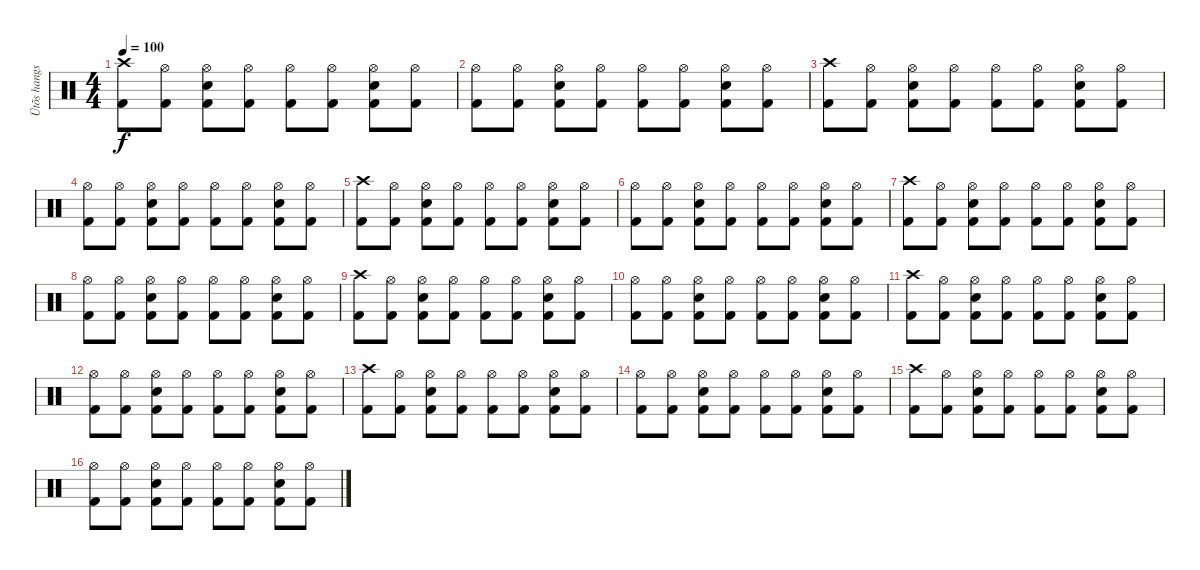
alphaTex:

\track ("Ütõs hangszer" "Ütõs hangs") {instrument percussion}
\staff {score}
\articulation defaults
\ts (4 4)
\tempo 100
\clef neutral
\ks c
("Crash high (hit)" "Kick (hit) 2").8{dy f} ("Hi-Hat (open)" "Kick (hit) 2").8 ("Hi-Hat (open)" "Snare (hit) 2" "Kick (hit) 2").8 ("Hi-Hat (open)" "Kick (hit) 2").8 ("Hi-Hat (open)" "Kick (hit) 2").8 ("Hi-Hat (open)" "Kick (hit) 2").8 ("Hi-Hat (open)" "Snare (hit) 2" "Kick (hit) 2").8 ("Hi-Hat (open)" "Kick (hit) 2").8 |
("Hi-Hat (open)" "Kick (hit) 2").8 ("Hi-Hat (open)" "Kick (hit) 2").8 ("Hi-Hat (open)" "Snare (hit) 2" "Kick (hit) 2").8 ("Hi-Hat (open)" "Kick (hit) 2").8 ("Hi-Hat (open)" "Kick (hit) 2").8 ("Hi-Hat (open)" "Kick (hit) 2").8 ("Hi-Hat (open)" "Snare (hit) 2" "Kick (hit) 2").8 ("Hi-Hat (open)" "Kick (hit) 2").8 |
("Crash high (hit)" "Kick (hit) 2").8 ("Hi-Hat (open)" "Kick (hit) 2").8 ("Hi-Hat (open)" "Snare (hit) 2" "Kick (hit) 2").8 ("Hi-Hat (open)" "Kick (hit) 2").8 ("Hi-Hat (open)" "Kick (hit) 2").8 ("Hi-Hat (open)" "Kick (hit) 2").8 ("Hi-Hat (open)" "Snare (hit) 2" "Kick (hit) 2").8 ("Hi-Hat (open)" "Kick (hit) 2").8 |
("Hi-Hat (open)" "Kick (hit) 2").8 ("Hi-Hat (open)" "Kick (hit) 2").8 ("Hi-Hat (open)" "Snare (hit) 2" "Kick (hit) 2").8 ("Hi-Hat (open)" "Kick (hit) 2").8 ("Hi-Hat (open)" "Kick (hit) 2").8 ("Hi-Hat (open)" "Kick (hit) 2").8 ("Hi-Hat (open)" "Snare (hit) 2" "Kick (hit) 2").8 ("Hi-Hat (open)" "Kick (hit) 2").8 |
("Crash high (hit)" "Kick (hit) 2").8 ("Hi-Hat (open)" "Kick (hit) 2").8 ("Hi-Hat (open)" "Snare (hit) 2" "Kick (hit) 2").8 ("Hi-Hat (open)" "Kick (hit) 2").8 ("Hi-Hat (open)" "Kick (hit) 2").8 ("Hi-Hat (open)" "Kick (hit) 2").8 ("Hi-Hat (open)" "Snare (hit) 2" "Kick (hit) 2").8 ("Hi-Hat (open)" "Kick (hit) 2").8 |
("Hi-Hat (open)" "Kick (hit) 2").8 ("Hi-Hat (open)" "Kick (hit) 2").8 ("Hi-Hat (open)" "Snare (hit) 2" "Kick (hit) 2").8 ("Hi-Hat (open)" "Kick (hit) 2").8 ("Hi-Hat (open)" "Kick (hit) 2").8 ("Hi-Hat (open)" "Kick (hit) 2").8 ("Hi-Hat (open)" "Snare (hit) 2" "Kick (hit) 2").8 ("Hi-Hat (open)" "Kick (hit) 2").8 |
("Crash high (hit)" "Kick (hit) 2").8 ("Hi-Hat (open)" "Kick (hit) 2").8 ("Hi-Hat (open)" "Snare (hit) 2" "Kick (hit) 2").8 ("Hi-Hat (open)" "Kick (hit) 2").8 ("Hi-Hat (open)" "Kick (hit) 2").8 ("Hi-Hat (open)" "Kick (hit) 2").8 ("Hi-Hat (open)" "Snare (hit) 2" "Kick (hit) 2").8 ("Hi-Hat (open)" "Kick (hit) 2").8 |
("Hi-Hat (open)" "Kick (hit) 2").8 ("Hi-Hat (open)" "Kick (hit) 2").8 ("Hi-Hat (open)" "Snare (hit) 2" "Kick (hit) 2").8 ("Hi-Hat (open)" "Kick (hit) 2").8 ("Hi-Hat (open)" "Kick (hit) 2").8 ("Hi-Hat (open)" "Kick (hit) 2").8 ("Hi-Hat (open)" "Snare (hit) 2" "Kick (hit) 2").8 ("Hi-Hat (open)" "Kick (hit) 2").8 |
("Crash high (hit)" "Kick (hit) 2").8 ("Hi-Hat (open)" "Kick (hit) 2").8 ("Hi-Hat (open)" "Snare (hit) 2" "Kick (hit) 2").8 ("Hi-Hat (open)" "Kick (hit) 2").8 ("Hi-Hat (open)" "Kick (hit) 2").8 ("Hi-Hat (open)" "Kick (hit) 2").8 ("Hi-Hat (open)" "Snare (hit) 2" "Kick (hit) 2").8 ("Hi-Hat (open)" "Kick (hit) 2").8 |
("Hi-Hat (open)" "Kick (hit) 2").8 ("Hi-Hat (open)" "Kick (hit) 2").8 ("Hi-Hat (open)" "Snare (hit) 2" "Kick (hit) 2").8 ("Hi-Hat (open)" "Kick (hit) 2").8 ("Hi-Hat (open)" "Kick (hit) 2").8 ("Hi-Hat (open)" "Kick (hit) 2").8 ("Hi-Hat (open)" "Snare (hit) 2" "Kick (hit) 2").8 ("Hi-Hat (open)" "Kick (hit) 2").8 |
("Crash high (hit)" "Kick (hit) 2").8 ("Hi-Hat (open)" "Kick (hit) 2").8 ("Hi-Hat (open)" "Snare (hit) 2" "Kick (hit) 2").8 ("Hi-Hat (open)" "Kick (hit) 2").8 ("Hi-Hat (open)" "Kick (hit) 2").8 ("Hi-Hat (open)" "Kick (hit) 2").8 ("Hi-Hat (open)" "Snare (hit) 2" "Kick (hit) 2").8 ("Hi-Hat (open)" "Kick (hit) 2").8 |
("Hi-Hat (open)" "Kick (hit) 2").8 ("Hi-Hat (open)" "Kick (hit) 2").8 ("Hi-Hat (open)" "Snare (hit) 2" "Kick (hit) 2").8 ("Hi-Hat (open)" "Kick (hit) 2").8 ("Hi-Hat (open)" "Kick (hit) 2").8 ("Hi-Hat (open)" "Kick (hit) 2").8 ("Hi-Hat (open)" "Snare (hit) 2" "Kick (hit) 2").8 ("Hi-Hat (open)" "Kick (hit) 2").8 |
("Crash high (hit)" "Kick (hit) 2").8 ("Hi-Hat (open)" "Kick (hit) 2").8 ("Hi-Hat (open)" "Snare (hit) 2" "Kick (hit) 2").8 ("Hi-Hat (open)" "Kick (hit) 2").8 ("Hi-Hat (open)" "Kick (hit) 2").8 ("Hi-Hat (open)" "Kick (hit) 2").8 ("Hi-Hat (open)" "Snare (hit) 2" "Kick (hit) 2").8 ("Hi-Hat (open)" "Kick (hit) 2").8 |
("Hi-Hat (open)" "Kick (hit) 2").8 ("Hi-Hat (open)" "Kick (hit) 2").8 ("Hi-Hat (open)" "Snare (hit) 2" "Kick (hit) 2").8 ("Hi-Hat (open)" "Kick (hit) 2").8 ("Hi-Hat (open)" "Kick (hit) 2").8 ("Hi-Hat (open)" "Kick (hit) 2").8 ("Hi-Hat (open)" "Snare (hit) 2" "Kick (hit) 2").8 ("Hi-Hat (open)" "Kick (hit) 2").8 |
("Crash high (hit)" "Kick (hit) 2").8 ("Hi-Hat (open)" "Kick (hit) 2").8 ("Hi-Hat (open)" "Snare (hit) 2" "Kick (hit) 2").8 ("Hi-Hat (open)" "Kick (hit) 2").8 ("Hi-Hat (open)" "Kick (hit) 2").8 ("Hi-Hat (open)" "Kick (hit) 2").8 ("Hi-Hat (open)" "Snare (hit) 2" "Kick (hit) 2").8 ("Hi-Hat (open)" "Kick (hit) 2").8 |
("Hi-Hat (open)" "Kick (hit) 2").8 ("Hi-Hat (open)" "Kick (hit) 2").8 ("Hi-Hat (open)" "Snare (hit) 2" "Kick (hit) 2").8 ("Hi-Hat (open)" "Kick (hit) 2").8 ("Hi-Hat (open)" "Kick (hit) 2").8 ("Hi-Hat (open)" "Kick (hit) 2").8 ("Hi-Hat (open)" "Snare (hit) 2" "Kick (hit) 2").8 ("Hi-Hat (open)" "Kick (hit) 2").8
